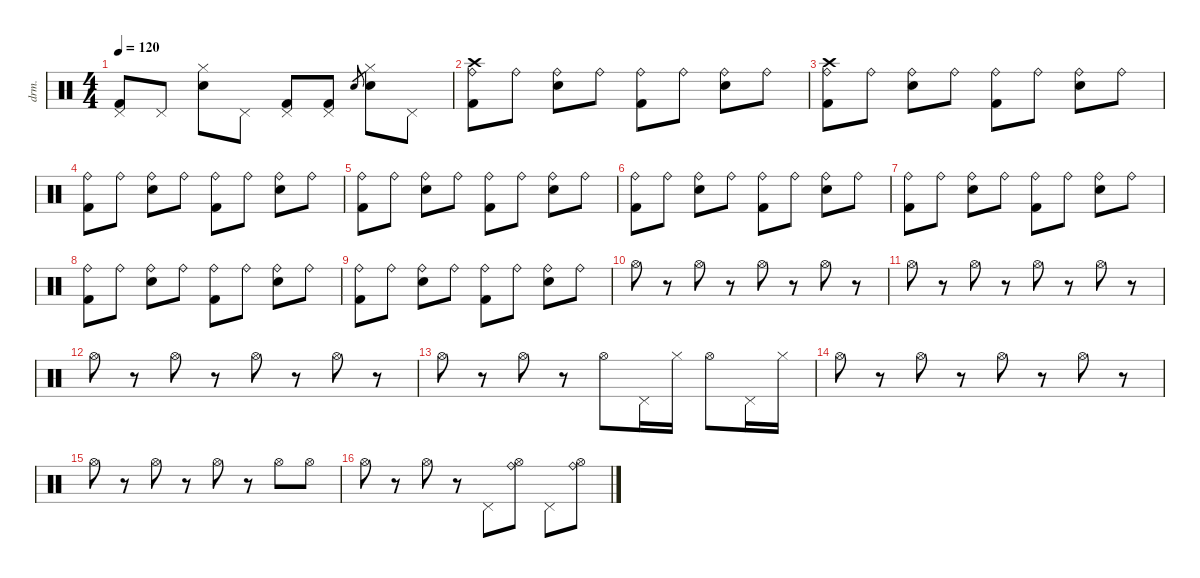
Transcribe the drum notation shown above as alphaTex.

\defaultSystemsLayout 4
\hideDynamics
\bracketExtendMode nobrackets
\otherSystemsTrackNameOrientation horizontal
\track ("Jeff Campitelli" "drm.") {instrument percussion}
\staff {score}
\articulation defaults
\ts (4 4)
\tempo 120
\clef neutral
\ks c
("Pedal Hi-Hat (hit)" "Kick (hit) 2").8{dy f beam Up} "Pedal Hi-Hat (hit)".8{beam Up} ("Hi-Hat (closed)" "Snare (hit) 2").8{beam Down} "Pedal Hi-Hat (hit)".8{beam Down} ("Pedal Hi-Hat (hit)" "Kick (hit) 2").8{beam Up} ("Pedal Hi-Hat (hit)" "Kick (hit) 2").8{beam Up} "Snare (hit) 2".8{gr dy mf beam Up} ("Hi-Hat (closed)" "Snare (hit) 2").8{dy f beam Down} "Pedal Hi-Hat (hit)".8{beam Down} |
("Crash high (hit)" "Ride (bell)" "Kick (hit) 2").8{beam Down} "Ride (bell)".8{beam Down} ("Ride (bell)" "Snare (hit) 2").8{beam Down} "Ride (bell)".8{beam Down} ("Ride (bell)" "Kick (hit) 2").8{beam Down} "Ride (bell)".8{beam Down} ("Ride (bell)" "Snare (hit) 2").8{beam Down} "Ride (bell)".8{beam Down} |
("Crash high (hit)" "Ride (bell)" "Kick (hit) 2").8{beam Down} "Ride (bell)".8{beam Down} ("Ride (bell)" "Snare (hit) 2").8{beam Down} "Ride (bell)".8{beam Down} ("Ride (bell)" "Kick (hit) 2").8{beam Down} "Ride (bell)".8{beam Down} ("Ride (bell)" "Snare (hit) 2").8{beam Down} "Ride (bell)".8{beam Down} |
("Ride (bell)" "Kick (hit) 2").8{beam Down} "Ride (bell)".8{beam Down} ("Ride (bell)" "Snare (hit) 2").8{beam Down} "Ride (bell)".8{beam Down} ("Ride (bell)" "Kick (hit) 2").8{beam Down} "Ride (bell)".8{beam Down} ("Ride (bell)" "Snare (hit) 2").8{beam Down} "Ride (bell)".8{beam Down} |
("Ride (bell)" "Kick (hit) 2").8{beam Down} "Ride (bell)".8{beam Down} ("Ride (bell)" "Snare (hit) 2").8{beam Down} "Ride (bell)".8{beam Down} ("Ride (bell)" "Kick (hit) 2").8{beam Down} "Ride (bell)".8{beam Down} ("Ride (bell)" "Snare (hit) 2").8{beam Down} "Ride (bell)".8{beam Down} |
("Ride (bell)" "Kick (hit) 2").8{beam Down} "Ride (bell)".8{beam Down} ("Ride (bell)" "Snare (hit) 2").8{beam Down} "Ride (bell)".8{beam Down} ("Ride (bell)" "Kick (hit) 2").8{beam Down} "Ride (bell)".8{beam Down} ("Ride (bell)" "Snare (hit) 2").8{beam Down} "Ride (bell)".8{beam Down} |
("Ride (bell)" "Kick (hit) 2").8{beam Down} "Ride (bell)".8{beam Down} ("Ride (bell)" "Snare (hit) 2").8{beam Down} "Ride (bell)".8{beam Down} ("Ride (bell)" "Kick (hit) 2").8{beam Down} "Ride (bell)".8{beam Down} ("Ride (bell)" "Snare (hit) 2").8{beam Down} "Ride (bell)".8{beam Down} |
("Ride (bell)" "Kick (hit) 2").8{beam Down} "Ride (bell)".8{beam Down} ("Ride (bell)" "Snare (hit) 2").8{beam Down} "Ride (bell)".8{beam Down} ("Ride (bell)" "Kick (hit) 2").8{beam Down} "Ride (bell)".8{beam Down} ("Ride (bell)" "Snare (hit) 2").8{beam Down} "Ride (bell)".8{beam Down} |
("Ride (bell)" "Kick (hit) 2").8{beam Down} "Ride (bell)".8{beam Down} ("Ride (bell)" "Snare (hit) 2").8{beam Down} "Ride (bell)".8{beam Down} ("Ride (bell)" "Kick (hit) 2").8{beam Down} "Ride (bell)".8{beam Down} ("Ride (bell)" "Snare (hit) 2").8{beam Down} "Ride (bell)".8{beam Down} |
"Hi-Hat (open)".8{dy mf beam Down} r.8{beam Down} "Hi-Hat (open)".8{beam Down} r.8{beam Down} "Hi-Hat (open)".8{beam Down} r.8{beam Down} "Hi-Hat (open)".8{beam Down} r.8{beam Down} |
"Hi-Hat (open)".8{beam Down} r.8{beam Down} "Hi-Hat (open)".8{beam Down} r.8{beam Down} "Hi-Hat (open)".8{beam Down} r.8{beam Down} "Hi-Hat (open)".8{beam Down} r.8{beam Down} |
"Hi-Hat (open)".8{beam Down} r.8{beam Down} "Hi-Hat (open)".8{beam Down} r.8{beam Down} "Hi-Hat (open)".8{beam Down} r.8{beam Down} "Hi-Hat (open)".8{beam Down} r.8{beam Down} |
"Hi-Hat (open)".8{beam Down} r.8{beam Down} "Hi-Hat (open)".8{beam Down} r.8{beam Down} "Hi-Hat (open)".8{beam Down} "Pedal Hi-Hat (hit)".16{dy mp beam Down} "Hi-Hat (closed)".16{beam Down} "Hi-Hat (open)".8{dy mf beam Down} "Pedal Hi-Hat (hit)".16{dy mp beam Down} "Hi-Hat (closed)".16{beam Down} |
"Hi-Hat (open)".8{dy mf beam Down} r.8{beam Down} "Hi-Hat (open)".8{beam Down} r.8{beam Down} "Hi-Hat (open)".8{beam Down} r.8{beam Down} "Hi-Hat (open)".8{beam Down} r.8{beam Down} |
"Hi-Hat (open)".8{beam Down} r.8{beam Down} "Hi-Hat (open)".8{beam Down} r.8{beam Down} "Hi-Hat (open)".8{beam Down} r.8{beam Down} "Hi-Hat (open)".8{beam Down} "Hi-Hat (open)".8{beam Down} |
"Hi-Hat (open)".8{beam Down} r.8{beam Down} "Hi-Hat (open)".8{beam Down} r.8{beam Down} "Pedal Hi-Hat (hit)".8{beam Down} ("Ride (bell)" "Hi-Hat (open)").8{beam Down} "Pedal Hi-Hat (hit)".8{beam Down} ("Ride (bell)" "Hi-Hat (open)").8{beam Down}
